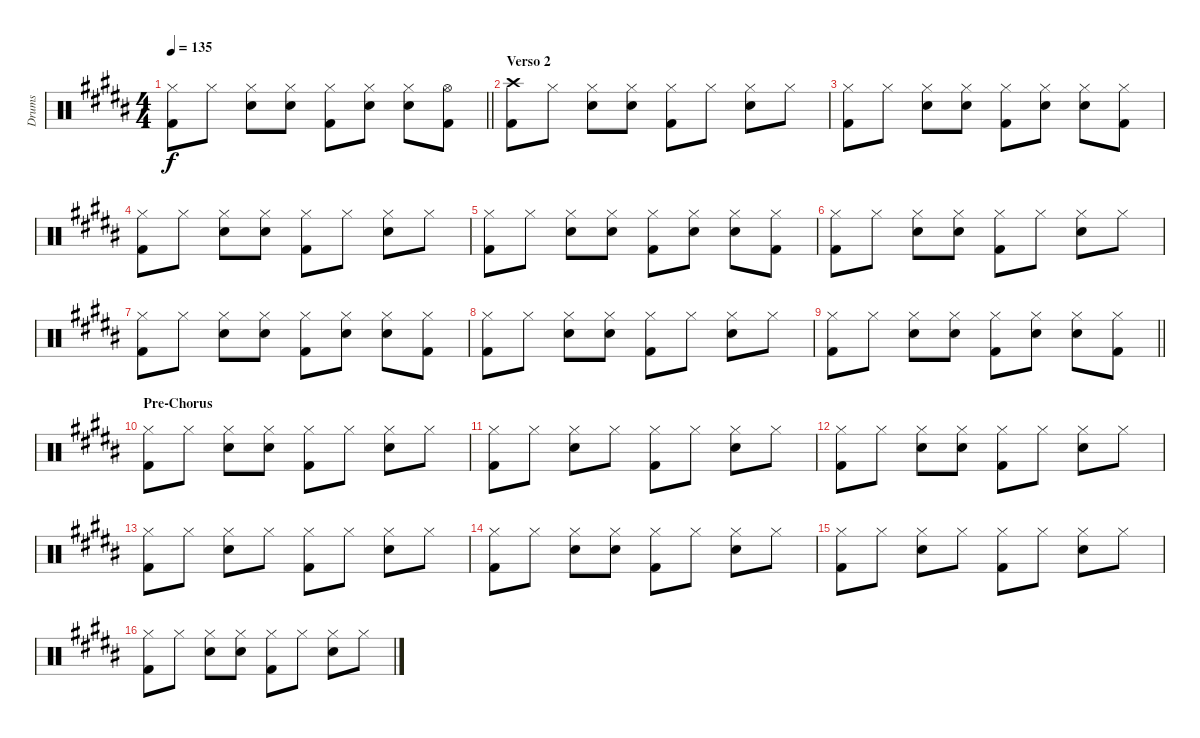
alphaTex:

\track ("Drums" "Drums") {instrument percussion}
\staff {score}
\articulation defaults
\ts (4 4)
\tempo 135
\clef neutral
\barLineRight lightlight
\ks b
("Hi-Hat (closed)" "Kick (hit) 2").8{dy f} "Hi-Hat (closed)".8 ("Hi-Hat (closed)" "Snare (hit) 2").8 ("Hi-Hat (closed)" "Snare (hit) 2").8 ("Hi-Hat (closed)" "Kick (hit) 2").8 ("Hi-Hat (closed)" "Snare (hit) 2").8 ("Hi-Hat (closed)" "Snare (hit) 2").8 ("Hi-Hat (open)" "Kick (hit) 2").8 |
\section ("" "Verso 2")
("Crash high (hit)" "Kick (hit) 2").8 "Hi-Hat (closed)".8 ("Hi-Hat (closed)" "Snare (hit) 2").8 ("Hi-Hat (closed)" "Snare (hit) 2").8 ("Hi-Hat (closed)" "Kick (hit) 2").8 "Hi-Hat (closed)".8 ("Hi-Hat (closed)" "Snare (hit) 2").8 "Hi-Hat (closed)".8 |
("Hi-Hat (closed)" "Kick (hit) 2").8 "Hi-Hat (closed)".8 ("Hi-Hat (closed)" "Snare (hit) 2").8 ("Hi-Hat (closed)" "Snare (hit) 2").8 ("Hi-Hat (closed)" "Kick (hit) 2").8 ("Hi-Hat (closed)" "Snare (hit) 2").8 ("Hi-Hat (closed)" "Snare (hit) 2").8 ("Hi-Hat (closed)" "Kick (hit) 2").8 |
("Hi-Hat (closed)" "Kick (hit) 2").8 "Hi-Hat (closed)".8 ("Hi-Hat (closed)" "Snare (hit) 2").8 ("Hi-Hat (closed)" "Snare (hit) 2").8 ("Hi-Hat (closed)" "Kick (hit) 2").8 "Hi-Hat (closed)".8 ("Hi-Hat (closed)" "Snare (hit) 2").8 "Hi-Hat (closed)".8 |
("Hi-Hat (closed)" "Kick (hit) 2").8 "Hi-Hat (closed)".8 ("Hi-Hat (closed)" "Snare (hit) 2").8 ("Hi-Hat (closed)" "Snare (hit) 2").8 ("Hi-Hat (closed)" "Kick (hit) 2").8 ("Hi-Hat (closed)" "Snare (hit) 2").8 ("Hi-Hat (closed)" "Snare (hit) 2").8 ("Hi-Hat (closed)" "Kick (hit) 2").8 |
("Hi-Hat (closed)" "Kick (hit) 2").8 "Hi-Hat (closed)".8 ("Hi-Hat (closed)" "Snare (hit) 2").8 ("Hi-Hat (closed)" "Snare (hit) 2").8 ("Hi-Hat (closed)" "Kick (hit) 2").8 "Hi-Hat (closed)".8 ("Hi-Hat (closed)" "Snare (hit) 2").8 "Hi-Hat (closed)".8 |
("Hi-Hat (closed)" "Kick (hit) 2").8 "Hi-Hat (closed)".8 ("Hi-Hat (closed)" "Snare (hit) 2").8 ("Hi-Hat (closed)" "Snare (hit) 2").8 ("Hi-Hat (closed)" "Kick (hit) 2").8 ("Hi-Hat (closed)" "Snare (hit) 2").8 ("Hi-Hat (closed)" "Snare (hit) 2").8 ("Hi-Hat (closed)" "Kick (hit) 2").8 |
("Hi-Hat (closed)" "Kick (hit) 2").8 "Hi-Hat (closed)".8 ("Hi-Hat (closed)" "Snare (hit) 2").8 ("Hi-Hat (closed)" "Snare (hit) 2").8 ("Hi-Hat (closed)" "Kick (hit) 2").8 "Hi-Hat (closed)".8 ("Hi-Hat (closed)" "Snare (hit) 2").8 "Hi-Hat (closed)".8 |
\barLineRight lightlight
("Hi-Hat (closed)" "Kick (hit) 2").8 "Hi-Hat (closed)".8 ("Hi-Hat (closed)" "Snare (hit) 2").8 ("Hi-Hat (closed)" "Snare (hit) 2").8 ("Hi-Hat (closed)" "Kick (hit) 2").8 ("Hi-Hat (closed)" "Snare (hit) 2").8 ("Hi-Hat (closed)" "Snare (hit) 2").8 ("Hi-Hat (closed)" "Kick (hit) 2").8 |
\section ("" "Pre-Chorus")
("Hi-Hat (closed)" "Kick (hit) 2").8 "Hi-Hat (closed)".8 ("Hi-Hat (closed)" "Snare (hit) 2").8 ("Hi-Hat (closed)" "Snare (hit) 2").8 ("Hi-Hat (closed)" "Kick (hit) 2").8 "Hi-Hat (closed)".8 ("Hi-Hat (closed)" "Snare (hit) 2").8 "Hi-Hat (closed)".8 |
("Hi-Hat (closed)" "Kick (hit) 2").8 "Hi-Hat (closed)".8 ("Hi-Hat (closed)" "Snare (hit) 2").8 "Hi-Hat (closed)".8 ("Hi-Hat (closed)" "Kick (hit) 2").8 "Hi-Hat (closed)".8 ("Hi-Hat (closed)" "Snare (hit) 2").8 "Hi-Hat (closed)".8 |
("Hi-Hat (closed)" "Kick (hit) 2").8 "Hi-Hat (closed)".8 ("Hi-Hat (closed)" "Snare (hit) 2").8 ("Hi-Hat (closed)" "Snare (hit) 2").8 ("Hi-Hat (closed)" "Kick (hit) 2").8 "Hi-Hat (closed)".8 ("Hi-Hat (closed)" "Snare (hit) 2").8 "Hi-Hat (closed)".8 |
("Hi-Hat (closed)" "Kick (hit) 2").8 "Hi-Hat (closed)".8 ("Hi-Hat (closed)" "Snare (hit) 2").8 "Hi-Hat (closed)".8 ("Hi-Hat (closed)" "Kick (hit) 2").8 "Hi-Hat (closed)".8 ("Hi-Hat (closed)" "Snare (hit) 2").8 "Hi-Hat (closed)".8 |
("Hi-Hat (closed)" "Kick (hit) 2").8 "Hi-Hat (closed)".8 ("Hi-Hat (closed)" "Snare (hit) 2").8 ("Hi-Hat (closed)" "Snare (hit) 2").8 ("Hi-Hat (closed)" "Kick (hit) 2").8 "Hi-Hat (closed)".8 ("Hi-Hat (closed)" "Snare (hit) 2").8 "Hi-Hat (closed)".8 |
("Hi-Hat (closed)" "Kick (hit) 2").8 "Hi-Hat (closed)".8 ("Hi-Hat (closed)" "Snare (hit) 2").8 "Hi-Hat (closed)".8 ("Hi-Hat (closed)" "Kick (hit) 2").8 "Hi-Hat (closed)".8 ("Hi-Hat (closed)" "Snare (hit) 2").8 "Hi-Hat (closed)".8 |
("Hi-Hat (closed)" "Kick (hit) 2").8 "Hi-Hat (closed)".8 ("Hi-Hat (closed)" "Snare (hit) 2").8 ("Hi-Hat (closed)" "Snare (hit) 2").8 ("Hi-Hat (closed)" "Kick (hit) 2").8 "Hi-Hat (closed)".8 ("Hi-Hat (closed)" "Snare (hit) 2").8 "Hi-Hat (closed)".8
